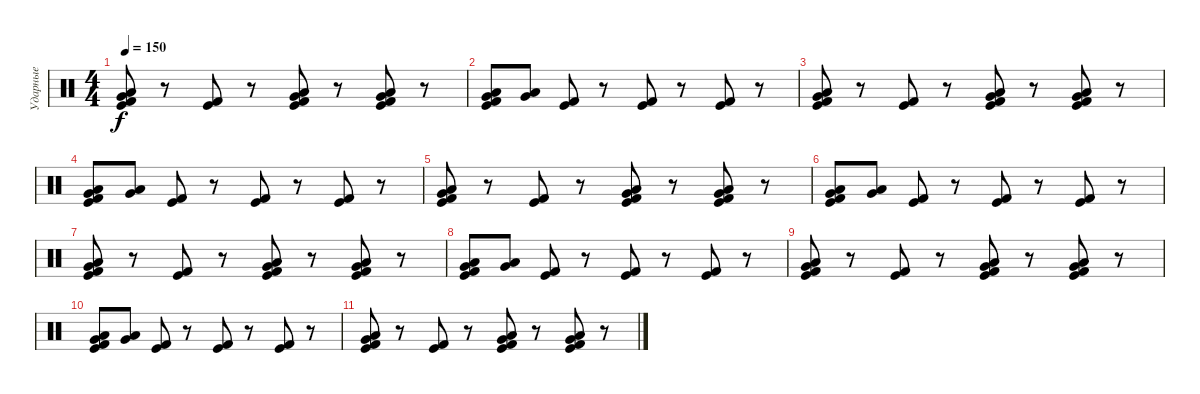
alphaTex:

\track ("Ударные" "Ударные") {instrument percussion}
\staff {score}
\articulation defaults
\ts (4 4)
\tempo 150
\clef neutral
\ks c
("Low Tom (hit)" "Very Low Tom (hit)" "Kick (hit)" "Kick (hit) 2").8{dy f} r.8 ("Kick (hit) 2" "Kick (hit)").8 r.8 ("Low Tom (hit)" "Very Low Tom (hit)" "Kick (hit) 2" "Kick (hit)").8 r.8 ("Low Tom (hit)" "Very Low Tom (hit)" "Kick (hit) 2" "Kick (hit)").8 r.8 |
("Low Tom (hit)" "Very Low Tom (hit)" "Kick (hit)" "Kick (hit) 2").8 ("Low Tom (hit)" "Very Low Tom (hit)").8 ("Kick (hit) 2" "Kick (hit)").8 r.8 ("Kick (hit) 2" "Kick (hit)").8 r.8 ("Kick (hit) 2" "Kick (hit)").8 r.8 |
("Low Tom (hit)" "Very Low Tom (hit)" "Kick (hit)" "Kick (hit) 2").8 r.8 ("Kick (hit) 2" "Kick (hit)").8 r.8 ("Low Tom (hit)" "Very Low Tom (hit)" "Kick (hit) 2" "Kick (hit)").8 r.8 ("Low Tom (hit)" "Very Low Tom (hit)" "Kick (hit) 2" "Kick (hit)").8 r.8 |
("Low Tom (hit)" "Very Low Tom (hit)" "Kick (hit)" "Kick (hit) 2").8 ("Low Tom (hit)" "Very Low Tom (hit)").8 ("Kick (hit) 2" "Kick (hit)").8 r.8 ("Kick (hit) 2" "Kick (hit)").8 r.8 ("Kick (hit) 2" "Kick (hit)").8 r.8 |
("Low Tom (hit)" "Very Low Tom (hit)" "Kick (hit)" "Kick (hit) 2").8 r.8 ("Kick (hit) 2" "Kick (hit)").8 r.8 ("Low Tom (hit)" "Very Low Tom (hit)" "Kick (hit) 2" "Kick (hit)").8 r.8 ("Low Tom (hit)" "Very Low Tom (hit)" "Kick (hit) 2" "Kick (hit)").8 r.8 |
("Low Tom (hit)" "Very Low Tom (hit)" "Kick (hit)" "Kick (hit) 2").8 ("Low Tom (hit)" "Very Low Tom (hit)").8 ("Kick (hit) 2" "Kick (hit)").8 r.8 ("Kick (hit) 2" "Kick (hit)").8 r.8 ("Kick (hit) 2" "Kick (hit)").8 r.8 |
("Low Tom (hit)" "Very Low Tom (hit)" "Kick (hit)" "Kick (hit) 2").8 r.8 ("Kick (hit) 2" "Kick (hit)").8 r.8 ("Low Tom (hit)" "Very Low Tom (hit)" "Kick (hit) 2" "Kick (hit)").8 r.8 ("Low Tom (hit)" "Very Low Tom (hit)" "Kick (hit) 2" "Kick (hit)").8 r.8 |
("Low Tom (hit)" "Very Low Tom (hit)" "Kick (hit)" "Kick (hit) 2").8 ("Low Tom (hit)" "Very Low Tom (hit)").8 ("Kick (hit) 2" "Kick (hit)").8 r.8 ("Kick (hit) 2" "Kick (hit)").8 r.8 ("Kick (hit) 2" "Kick (hit)").8 r.8 |
("Low Tom (hit)" "Very Low Tom (hit)" "Kick (hit)" "Kick (hit) 2").8 r.8 ("Kick (hit) 2" "Kick (hit)").8 r.8 ("Low Tom (hit)" "Very Low Tom (hit)" "Kick (hit) 2" "Kick (hit)").8 r.8 ("Low Tom (hit)" "Very Low Tom (hit)" "Kick (hit) 2" "Kick (hit)").8 r.8 |
("Low Tom (hit)" "Very Low Tom (hit)" "Kick (hit)" "Kick (hit) 2").8 ("Low Tom (hit)" "Very Low Tom (hit)").8 ("Kick (hit) 2" "Kick (hit)").8 r.8 ("Kick (hit) 2" "Kick (hit)").8 r.8 ("Kick (hit) 2" "Kick (hit)").8 r.8 |
("Low Tom (hit)" "Very Low Tom (hit)" "Kick (hit)" "Kick (hit) 2").8 r.8 ("Kick (hit) 2" "Kick (hit)").8 r.8 ("Low Tom (hit)" "Very Low Tom (hit)" "Kick (hit) 2" "Kick (hit)").8 r.8 ("Low Tom (hit)" "Very Low Tom (hit)" "Kick (hit) 2" "Kick (hit)").8 r.8
